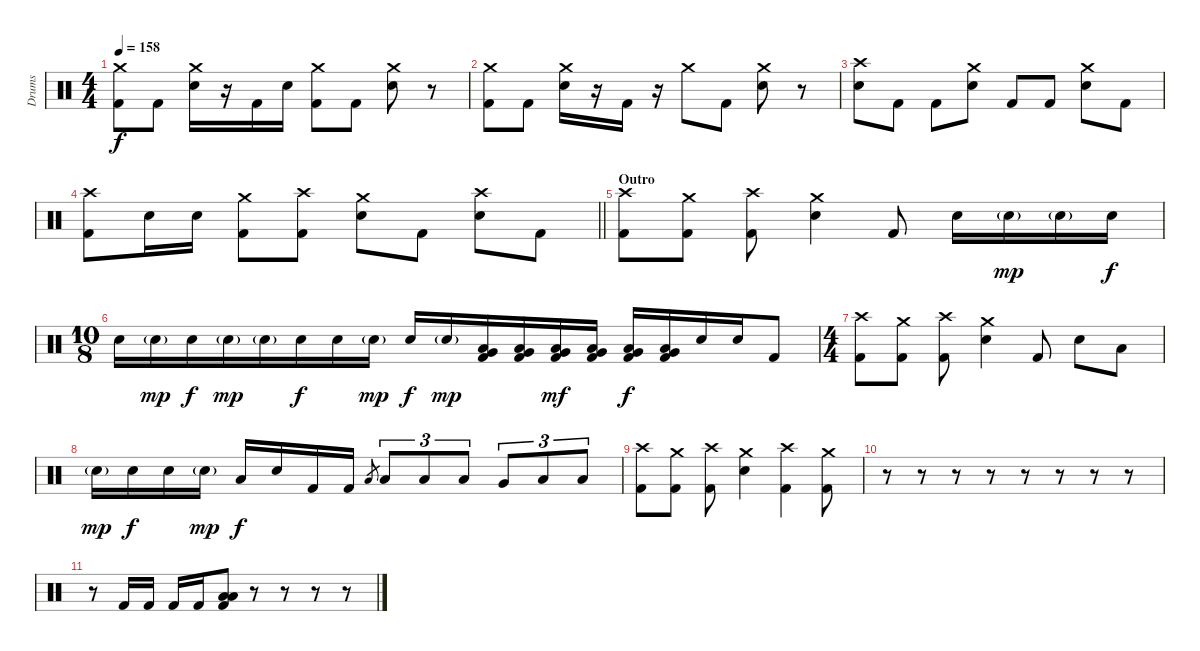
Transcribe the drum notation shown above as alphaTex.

\track ("Drums" "Drums") {instrument percussion}
\staff {score}
\articulation defaults
\ts (4 4)
\tempo 158
\clef neutral
\ks c
("Crash medium (hit)" "Kick (hit) 2").8{dy f} "Kick (hit) 2".8 ("Crash medium (hit)" "Snare (hit) 2").16 r.16 "Kick (hit) 2".16 "Snare (hit) 2".16 ("Crash medium (hit)" "Kick (hit) 2").8 "Kick (hit) 2".8 ("Crash medium (hit)" "Snare (hit) 2").8 r.8 |
("Crash medium (hit)" "Kick (hit) 2").8 "Kick (hit) 2".8 ("Crash medium (hit)" "Snare (hit) 2").16 r.16 "Kick (hit) 2".16 r.16 "Crash medium (hit)".8 "Kick (hit) 2".8 ("Crash medium (hit)" "Snare (hit) 2").8 r.8 |
("Crash high (hit)" "Snare (hit) 2").8 "Kick (hit) 2".8 "Kick (hit) 2".8 ("Crash medium (hit)" "Snare (hit) 2").8 "Kick (hit) 2".8 "Kick (hit) 2".8 ("Crash medium (hit)" "Snare (hit) 2").8 "Kick (hit) 2".8 |
\barLineRight lightlight
("Crash high (hit)" "Kick (hit) 2").8 "Snare (hit) 2".16 "Snare (hit) 2".16 ("Crash medium (hit)" "Kick (hit) 2").8 ("Crash high (hit)" "Kick (hit) 2").8 ("Crash medium (hit)" "Snare (hit) 2").8 "Kick (hit) 2".8 ("Crash high (hit)" "Snare (hit) 2").8 "Kick (hit) 2".8 |
\section ("" "Outro")
("Crash high (hit)" "Kick (hit) 2").8 ("Crash medium (hit)" "Kick (hit) 2").8 ("Crash high (hit)" "Kick (hit) 2").8 ("Crash medium (hit)" "Snare (hit) 2").4 "Kick (hit) 2".8 "Snare (hit) 2".16 "Snare (hit) 2"{g}.16{dy mp} "Snare (hit) 2"{g}.16 "Snare (hit) 2".16{dy f} |
\ts (10 8)
"Snare (hit) 2".16 "Snare (hit) 2"{g}.16{dy mp} "Snare (hit) 2".16{dy f} "Snare (hit) 2"{g}.16{dy mp} "Snare (hit) 2"{g}.16 "Snare (hit) 2".16{dy f} "Snare (hit) 2".16 "Snare (hit) 2"{g}.16{dy mp} "Snare (hit) 2".16{dy f} "Snare (hit) 2"{g}.16{dy mp} ("Low Floor Tom (hit)" "Very Low Tom (hit)" "Kick (hit) 2").16 ("Low Floor Tom (hit)" "Very Low Tom (hit)" "Kick (hit) 2").16 ("Low Floor Tom (hit)" "Very Low Tom (hit)" "Kick (hit) 2").16{dy mf} ("Low Floor Tom (hit)" "Very Low Tom (hit)" "Kick (hit) 2").16 ("Low Floor Tom (hit)" "Very Low Tom (hit)" "Kick (hit) 2").16{dy f} ("Low Floor Tom (hit)" "Very Low Tom (hit)" "Kick (hit) 2").16 "Snare (hit) 2".16 "Snare (hit) 2".16 "Kick (hit) 2".8 |
\ts (4 4)
("Crash high (hit)" "Kick (hit) 2").8 ("Crash medium (hit)" "Kick (hit) 2").8 ("Crash high (hit)" "Kick (hit) 2").8 ("Crash medium (hit)" "Snare (hit) 2").4 "Kick (hit) 2".8 "Snare (hit) 2".8 "Low Tom (hit)".8 |
"Snare (hit) 2"{g}.16{dy mp} "Snare (hit) 2".16{dy f} "Snare (hit) 2".16 "Snare (hit) 2"{g}.16{dy mp} "Low Tom (hit)".16{dy f} "Snare (hit) 2".16 "Kick (hit) 2".16 "Kick (hit) 2".16 "Low Tom (hit)".8{gr} "Low Tom (hit)".8{tu (3 2)} "Low Tom (hit)".8{tu (3 2)} "Low Tom (hit)".8{tu (3 2)} "Very Low Tom (hit)".8{tu (3 2)} "Low Tom (hit)".8{tu (3 2)} "Low Floor Tom (hit)".8{tu (3 2)} |
("Crash high (hit)" "Kick (hit) 2").8 ("Crash medium (hit)" "Kick (hit) 2").8 ("Crash high (hit)" "Kick (hit) 2").8 ("Crash medium (hit)" "Snare (hit) 2").4 ("Crash high (hit)" "Kick (hit) 2").4 ("Crash medium (hit)" "Kick (hit) 2").8 |
r.8 r.8 r.8 r.8 r.8 r.8 r.8 r.8 |
r.8 "Kick (hit) 2".16 "Kick (hit) 2".16 "Kick (hit) 2".16 "Kick (hit) 2".16 ("Low Floor Tom (hit)" "Low Floor Tom (hit)" "Kick (hit) 2").8 r.8 r.8 r.8 r.8
